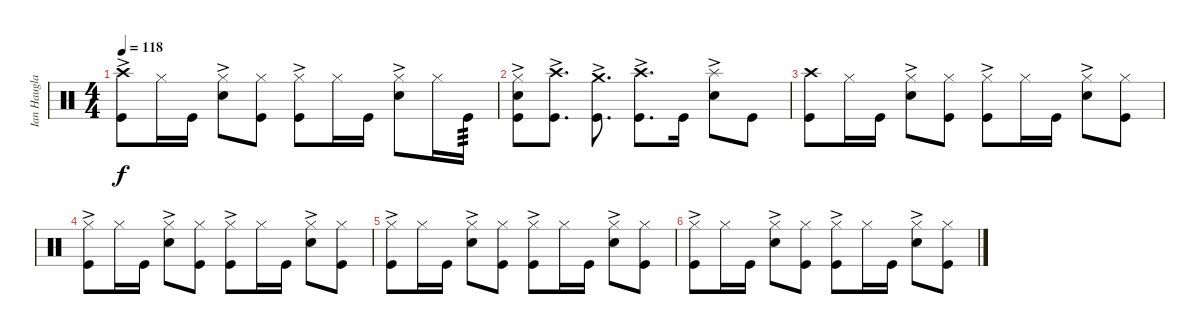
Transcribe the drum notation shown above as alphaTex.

\track ("Ian Haugland - Tama Imperialstar Kit - " "Ian Haugla") {instrument percussion}
\staff {score}
\articulation defaults
\ts (4 4)
\tempo 118
\clef neutral
\ks c
("Crash high (hit)"{ac} "Kick (hit)").8{dy f} "Hi-Hat (closed)".16 "Kick (hit)".16 ("Hi-Hat (closed)"{ac} "Snare (hit) 2").8 ("Hi-Hat (closed)" "Kick (hit)").8 ("Hi-Hat (closed)"{ac} "Kick (hit)").8 "Hi-Hat (closed)".16 "Kick (hit)".16 ("Hi-Hat (closed)"{ac} "Snare (hit) 2").8 "Hi-Hat (closed)".16 "Kick (hit)".16{tp 3} |
("Hi-Hat (closed)"{ac} "Snare (hit) 2" "Kick (hit)").8 ("Crash high (hit)"{ac} "Kick (hit)").8{d} ("Crash medium (hit)"{ac} "Kick (hit)").8{d} ("Crash high (hit)"{ac} "Kick (hit)").8{d} "Kick (hit)".16 ("Splash (hit)"{ac} "Snare (hit) 2").8 "Kick (hit)".8 |
("Crash high (hit)" "Kick (hit)").8 "Hi-Hat (closed)".16 "Kick (hit)".16 ("Hi-Hat (closed)"{ac} "Snare (hit) 2").8 ("Hi-Hat (closed)" "Kick (hit)").8 ("Hi-Hat (closed)"{ac} "Kick (hit)").8 "Hi-Hat (closed)".16 "Kick (hit)".16 ("Hi-Hat (closed)"{ac} "Snare (hit) 2").8 ("Hi-Hat (closed)" "Kick (hit)").8 |
("Hi-Hat (closed)"{ac} "Kick (hit)").8 "Hi-Hat (closed)".16 "Kick (hit)".16 ("Hi-Hat (closed)"{ac} "Snare (hit) 2").8 ("Hi-Hat (closed)" "Kick (hit)").8 ("Hi-Hat (closed)"{ac} "Kick (hit)").8 "Hi-Hat (closed)".16 "Kick (hit)".16 ("Hi-Hat (closed)"{ac} "Snare (hit) 2").8 ("Hi-Hat (closed)" "Kick (hit)").8 |
("Hi-Hat (closed)"{ac} "Kick (hit)").8 "Hi-Hat (closed)".16 "Kick (hit)".16 ("Hi-Hat (closed)"{ac} "Snare (hit) 2").8 ("Hi-Hat (closed)" "Kick (hit)").8 ("Hi-Hat (closed)"{ac} "Kick (hit)").8 "Hi-Hat (closed)".16 "Kick (hit)".16 ("Hi-Hat (closed)"{ac} "Snare (hit) 2").8 ("Hi-Hat (closed)" "Kick (hit)").8 |
("Hi-Hat (closed)"{ac} "Kick (hit)").8 "Hi-Hat (closed)".16 "Kick (hit)".16 ("Hi-Hat (closed)"{ac} "Snare (hit) 2").8 ("Hi-Hat (closed)" "Kick (hit)").8 ("Hi-Hat (closed)"{ac} "Kick (hit)").8 "Hi-Hat (closed)".16 "Kick (hit)".16 ("Hi-Hat (closed)"{ac} "Snare (hit) 2").8 ("Hi-Hat (closed)" "Kick (hit)").8
